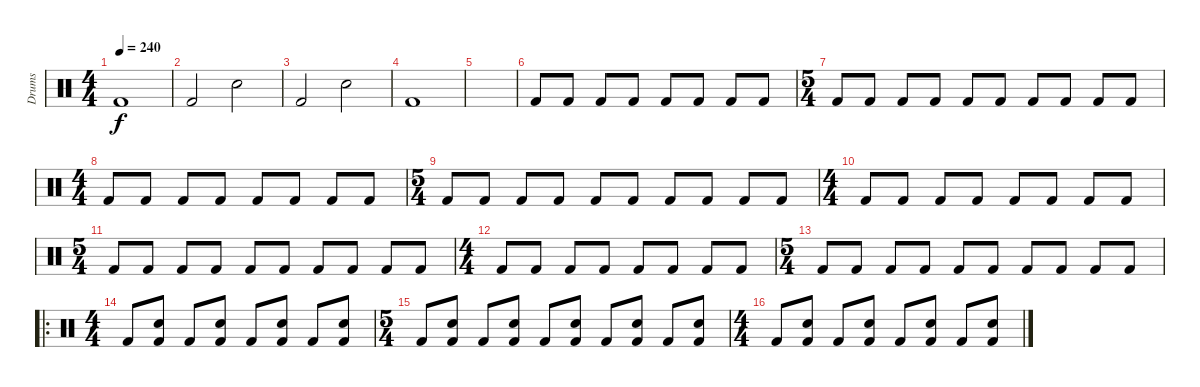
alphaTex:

\track ("Drums" "Drums") {instrument percussion}
\staff {score}
\articulation defaults
\ts (4 4)
\tempo 240
\clef neutral
\ks c "Kick (hit) 2".1{dy f}
|
"Kick (hit) 2".2 "Snare (hit) 2".2 |
"Kick (hit) 2".2 "Snare (hit) 2".2 |
"Kick (hit) 2".1 |
|
"Kick (hit) 2".8 "Kick (hit) 2".8 "Kick (hit) 2".8 "Kick (hit) 2".8 "Kick (hit) 2".8 "Kick (hit) 2".8 "Kick (hit) 2".8 "Kick (hit) 2".8 |
\ts (5 4)
"Kick (hit) 2".8 "Kick (hit) 2".8 "Kick (hit) 2".8 "Kick (hit) 2".8 "Kick (hit) 2".8 "Kick (hit) 2".8 "Kick (hit) 2".8 "Kick (hit) 2".8 "Kick (hit) 2".8 "Kick (hit) 2".8 |
\ts (4 4)
"Kick (hit) 2".8 "Kick (hit) 2".8 "Kick (hit) 2".8 "Kick (hit) 2".8 "Kick (hit) 2".8 "Kick (hit) 2".8 "Kick (hit) 2".8 "Kick (hit) 2".8 |
\ts (5 4)
"Kick (hit) 2".8 "Kick (hit) 2".8 "Kick (hit) 2".8 "Kick (hit) 2".8 "Kick (hit) 2".8 "Kick (hit) 2".8 "Kick (hit) 2".8 "Kick (hit) 2".8 "Kick (hit) 2".8 "Kick (hit) 2".8 |
\ts (4 4)
"Kick (hit) 2".8 "Kick (hit) 2".8 "Kick (hit) 2".8 "Kick (hit) 2".8 "Kick (hit) 2".8 "Kick (hit) 2".8 "Kick (hit) 2".8 "Kick (hit) 2".8 |
\ts (5 4)
"Kick (hit) 2".8 "Kick (hit) 2".8 "Kick (hit) 2".8 "Kick (hit) 2".8 "Kick (hit) 2".8 "Kick (hit) 2".8 "Kick (hit) 2".8 "Kick (hit) 2".8 "Kick (hit) 2".8 "Kick (hit) 2".8 |
\ts (4 4)
"Kick (hit) 2".8 "Kick (hit) 2".8 "Kick (hit) 2".8 "Kick (hit) 2".8 "Kick (hit) 2".8 "Kick (hit) 2".8 "Kick (hit) 2".8 "Kick (hit) 2".8 |
\ts (5 4)
"Kick (hit) 2".8 "Kick (hit) 2".8 "Kick (hit) 2".8 "Kick (hit) 2".8 "Kick (hit) 2".8 "Kick (hit) 2".8 "Kick (hit) 2".8 "Kick (hit) 2".8 "Kick (hit) 2".8 "Kick (hit) 2".8 |
\ro
\ts (4 4)
"Kick (hit) 2".8 ("Snare (hit) 2" "Kick (hit) 2").8 "Kick (hit) 2".8 ("Snare (hit) 2" "Kick (hit) 2").8 "Kick (hit) 2".8 ("Snare (hit) 2" "Kick (hit) 2").8 "Kick (hit) 2".8 ("Snare (hit) 2" "Kick (hit) 2").8 |
\ts (5 4)
"Kick (hit) 2".8 ("Snare (hit) 2" "Kick (hit) 2").8 "Kick (hit) 2".8 ("Snare (hit) 2" "Kick (hit) 2").8 "Kick (hit) 2".8 ("Snare (hit) 2" "Kick (hit) 2").8 "Kick (hit) 2".8 ("Snare (hit) 2" "Kick (hit) 2").8 "Kick (hit) 2".8 ("Snare (hit) 2" "Kick (hit) 2").8 |
\ts (4 4)
"Kick (hit) 2".8 ("Snare (hit) 2" "Kick (hit) 2").8 "Kick (hit) 2".8 ("Snare (hit) 2" "Kick (hit) 2").8 "Kick (hit) 2".8 ("Snare (hit) 2" "Kick (hit) 2").8 "Kick (hit) 2".8 ("Snare (hit) 2" "Kick (hit) 2").8
